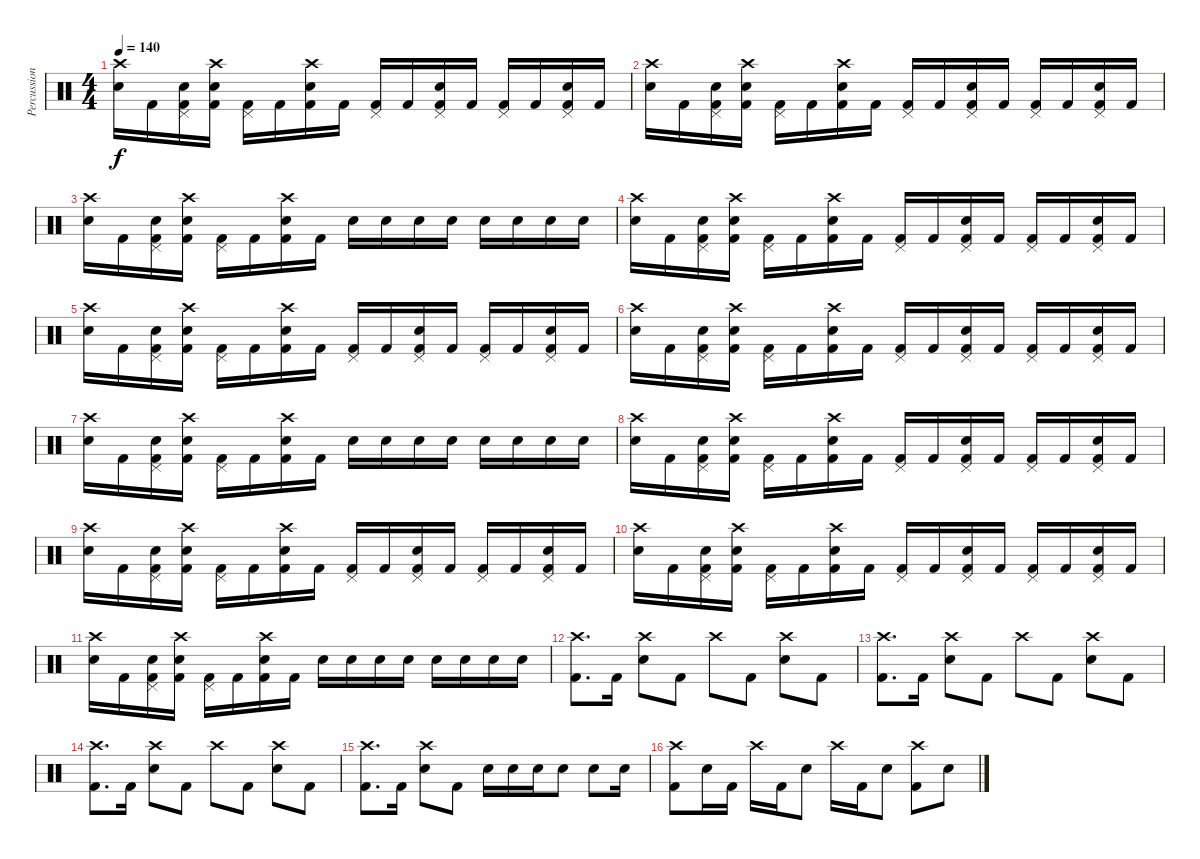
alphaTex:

\track ("Percussions" "Percussion") {instrument percussion}
\staff {score}
\articulation defaults
\ts (4 4)
\tempo 140
\clef neutral
\ks c
("Crash high (hit)" "Electric Snare (hit)").16{dy f} "Kick (hit) 2".16 ("Pedal Hi-Hat (hit)" "Electric Snare (hit)" "Kick (hit) 2").16 ("Crash high (hit)" "Electric Snare (hit)" "Kick (hit) 2").16 ("Pedal Hi-Hat (hit)" "Kick (hit) 2").16 "Kick (hit) 2".16 ("Crash high (hit)" "Electric Snare (hit)" "Kick (hit) 2").16 "Kick (hit) 2".16 ("Pedal Hi-Hat (hit)" "Kick (hit) 2").16 "Kick (hit) 2".16 ("Pedal Hi-Hat (hit)" "Electric Snare (hit)" "Kick (hit) 2").16 "Kick (hit) 2".16 ("Pedal Hi-Hat (hit)" "Kick (hit) 2").16 "Kick (hit) 2".16 ("Pedal Hi-Hat (hit)" "Electric Snare (hit)" "Kick (hit) 2").16 "Kick (hit) 2".16 |
("Crash high (hit)" "Electric Snare (hit)").16 "Kick (hit) 2".16 ("Pedal Hi-Hat (hit)" "Electric Snare (hit)" "Kick (hit) 2").16 ("Crash high (hit)" "Electric Snare (hit)" "Kick (hit) 2").16 ("Pedal Hi-Hat (hit)" "Kick (hit) 2").16 "Kick (hit) 2".16 ("Crash high (hit)" "Electric Snare (hit)" "Kick (hit) 2").16 "Kick (hit) 2".16 ("Pedal Hi-Hat (hit)" "Kick (hit) 2").16 "Kick (hit) 2".16 ("Pedal Hi-Hat (hit)" "Electric Snare (hit)" "Kick (hit) 2").16 "Kick (hit) 2".16 ("Pedal Hi-Hat (hit)" "Kick (hit) 2").16 "Kick (hit) 2".16 ("Pedal Hi-Hat (hit)" "Electric Snare (hit)" "Kick (hit) 2").16 "Kick (hit) 2".16 |
("Crash high (hit)" "Electric Snare (hit)").16 "Kick (hit) 2".16 ("Pedal Hi-Hat (hit)" "Electric Snare (hit)" "Kick (hit) 2").16 ("Crash high (hit)" "Electric Snare (hit)" "Kick (hit) 2").16 ("Pedal Hi-Hat (hit)" "Kick (hit) 2").16 "Kick (hit) 2".16 ("Crash high (hit)" "Electric Snare (hit)" "Kick (hit) 2").16 "Kick (hit) 2".16 "Electric Snare (hit)".16 "Electric Snare (hit)".16 "Electric Snare (hit)".16 "Electric Snare (hit)".16 "Electric Snare (hit)".16 "Electric Snare (hit)".16 "Electric Snare (hit)".16 "Electric Snare (hit)".16 |
("Crash high (hit)" "Electric Snare (hit)").16 "Kick (hit) 2".16 ("Pedal Hi-Hat (hit)" "Electric Snare (hit)" "Kick (hit) 2").16 ("Crash high (hit)" "Electric Snare (hit)" "Kick (hit) 2").16 ("Pedal Hi-Hat (hit)" "Kick (hit) 2").16 "Kick (hit) 2".16 ("Crash high (hit)" "Electric Snare (hit)" "Kick (hit) 2").16 "Kick (hit) 2".16 ("Pedal Hi-Hat (hit)" "Kick (hit) 2").16 "Kick (hit) 2".16 ("Pedal Hi-Hat (hit)" "Electric Snare (hit)" "Kick (hit) 2").16 "Kick (hit) 2".16 ("Pedal Hi-Hat (hit)" "Kick (hit) 2").16 "Kick (hit) 2".16 ("Pedal Hi-Hat (hit)" "Electric Snare (hit)" "Kick (hit) 2").16 "Kick (hit) 2".16 |
("Crash high (hit)" "Electric Snare (hit)").16 "Kick (hit) 2".16 ("Pedal Hi-Hat (hit)" "Electric Snare (hit)" "Kick (hit) 2").16 ("Crash high (hit)" "Electric Snare (hit)" "Kick (hit) 2").16 ("Pedal Hi-Hat (hit)" "Kick (hit) 2").16 "Kick (hit) 2".16 ("Crash high (hit)" "Electric Snare (hit)" "Kick (hit) 2").16 "Kick (hit) 2".16 ("Pedal Hi-Hat (hit)" "Kick (hit) 2").16 "Kick (hit) 2".16 ("Pedal Hi-Hat (hit)" "Electric Snare (hit)" "Kick (hit) 2").16 "Kick (hit) 2".16 ("Pedal Hi-Hat (hit)" "Kick (hit) 2").16 "Kick (hit) 2".16 ("Pedal Hi-Hat (hit)" "Electric Snare (hit)" "Kick (hit) 2").16 "Kick (hit) 2".16 |
("Crash high (hit)" "Electric Snare (hit)").16 "Kick (hit) 2".16 ("Pedal Hi-Hat (hit)" "Electric Snare (hit)" "Kick (hit) 2").16 ("Crash high (hit)" "Electric Snare (hit)" "Kick (hit) 2").16 ("Pedal Hi-Hat (hit)" "Kick (hit) 2").16 "Kick (hit) 2".16 ("Crash high (hit)" "Electric Snare (hit)" "Kick (hit) 2").16 "Kick (hit) 2".16 ("Pedal Hi-Hat (hit)" "Kick (hit) 2").16 "Kick (hit) 2".16 ("Pedal Hi-Hat (hit)" "Electric Snare (hit)" "Kick (hit) 2").16 "Kick (hit) 2".16 ("Pedal Hi-Hat (hit)" "Kick (hit) 2").16 "Kick (hit) 2".16 ("Pedal Hi-Hat (hit)" "Electric Snare (hit)" "Kick (hit) 2").16 "Kick (hit) 2".16 |
("Crash high (hit)" "Electric Snare (hit)").16 "Kick (hit) 2".16 ("Pedal Hi-Hat (hit)" "Electric Snare (hit)" "Kick (hit) 2").16 ("Crash high (hit)" "Electric Snare (hit)" "Kick (hit) 2").16 ("Pedal Hi-Hat (hit)" "Kick (hit) 2").16 "Kick (hit) 2".16 ("Crash high (hit)" "Electric Snare (hit)" "Kick (hit) 2").16 "Kick (hit) 2".16 "Electric Snare (hit)".16 "Electric Snare (hit)".16 "Electric Snare (hit)".16 "Electric Snare (hit)".16 "Electric Snare (hit)".16 "Electric Snare (hit)".16 "Electric Snare (hit)".16 "Electric Snare (hit)".16 |
("Crash high (hit)" "Electric Snare (hit)").16 "Kick (hit) 2".16 ("Pedal Hi-Hat (hit)" "Electric Snare (hit)" "Kick (hit) 2").16 ("Crash high (hit)" "Electric Snare (hit)" "Kick (hit) 2").16 ("Pedal Hi-Hat (hit)" "Kick (hit) 2").16 "Kick (hit) 2".16 ("Crash high (hit)" "Electric Snare (hit)" "Kick (hit) 2").16 "Kick (hit) 2".16 ("Pedal Hi-Hat (hit)" "Kick (hit) 2").16 "Kick (hit) 2".16 ("Pedal Hi-Hat (hit)" "Electric Snare (hit)" "Kick (hit) 2").16 "Kick (hit) 2".16 ("Pedal Hi-Hat (hit)" "Kick (hit) 2").16 "Kick (hit) 2".16 ("Pedal Hi-Hat (hit)" "Electric Snare (hit)" "Kick (hit) 2").16 "Kick (hit) 2".16 |
("Crash high (hit)" "Electric Snare (hit)").16 "Kick (hit) 2".16 ("Pedal Hi-Hat (hit)" "Electric Snare (hit)" "Kick (hit) 2").16 ("Crash high (hit)" "Electric Snare (hit)" "Kick (hit) 2").16 ("Pedal Hi-Hat (hit)" "Kick (hit) 2").16 "Kick (hit) 2".16 ("Crash high (hit)" "Electric Snare (hit)" "Kick (hit) 2").16 "Kick (hit) 2".16 ("Pedal Hi-Hat (hit)" "Kick (hit) 2").16 "Kick (hit) 2".16 ("Pedal Hi-Hat (hit)" "Electric Snare (hit)" "Kick (hit) 2").16 "Kick (hit) 2".16 ("Pedal Hi-Hat (hit)" "Kick (hit) 2").16 "Kick (hit) 2".16 ("Pedal Hi-Hat (hit)" "Electric Snare (hit)" "Kick (hit) 2").16 "Kick (hit) 2".16 |
("Crash high (hit)" "Electric Snare (hit)").16 "Kick (hit) 2".16 ("Pedal Hi-Hat (hit)" "Electric Snare (hit)" "Kick (hit) 2").16 ("Crash high (hit)" "Electric Snare (hit)" "Kick (hit) 2").16 ("Pedal Hi-Hat (hit)" "Kick (hit) 2").16 "Kick (hit) 2".16 ("Crash high (hit)" "Electric Snare (hit)" "Kick (hit) 2").16 "Kick (hit) 2".16 ("Pedal Hi-Hat (hit)" "Kick (hit) 2").16 "Kick (hit) 2".16 ("Pedal Hi-Hat (hit)" "Electric Snare (hit)" "Kick (hit) 2").16 "Kick (hit) 2".16 ("Pedal Hi-Hat (hit)" "Kick (hit) 2").16 "Kick (hit) 2".16 ("Pedal Hi-Hat (hit)" "Electric Snare (hit)" "Kick (hit) 2").16 "Kick (hit) 2".16 |
("Crash high (hit)" "Electric Snare (hit)").16 "Kick (hit) 2".16 ("Pedal Hi-Hat (hit)" "Electric Snare (hit)" "Kick (hit) 2").16 ("Crash high (hit)" "Electric Snare (hit)" "Kick (hit) 2").16 ("Pedal Hi-Hat (hit)" "Kick (hit) 2").16 "Kick (hit) 2".16 ("Crash high (hit)" "Electric Snare (hit)" "Kick (hit) 2").16 "Kick (hit) 2".16 "Electric Snare (hit)".16 "Electric Snare (hit)".16 "Electric Snare (hit)".16 "Electric Snare (hit)".16 "Electric Snare (hit)".16 "Electric Snare (hit)".16 "Electric Snare (hit)".16 "Electric Snare (hit)".16 |
("Crash high (hit)" "Kick (hit) 2").8{d} "Kick (hit) 2".16 ("Crash high (hit)" "Electric Snare (hit)").8 "Kick (hit) 2".8 "Crash high (hit)".8 "Kick (hit) 2".8 ("Crash high (hit)" "Electric Snare (hit)").8 "Kick (hit) 2".8 |
("Crash high (hit)" "Kick (hit) 2").8{d} "Kick (hit) 2".16 ("Crash high (hit)" "Electric Snare (hit)").8 "Kick (hit) 2".8 "Crash high (hit)".8 "Kick (hit) 2".8 ("Crash high (hit)" "Electric Snare (hit)").8 "Kick (hit) 2".8 |
("Crash high (hit)" "Kick (hit) 2").8{d} "Kick (hit) 2".16 ("Crash high (hit)" "Electric Snare (hit)").8 "Kick (hit) 2".8 "Crash high (hit)".8 "Kick (hit) 2".8 ("Crash high (hit)" "Electric Snare (hit)").8 "Kick (hit) 2".8 |
("Crash high (hit)" "Kick (hit) 2").8{d} "Kick (hit) 2".16 ("Crash high (hit)" "Electric Snare (hit)").8 "Kick (hit) 2".8 "Electric Snare (hit)".16 "Electric Snare (hit)".16 "Electric Snare (hit)".16 "Electric Snare (hit)".8 "Electric Snare (hit)".8 "Electric Snare (hit)".16 |
("Kick (hit) 2" "Crash high (hit)").8 "Electric Snare (hit)".16 "Kick (hit) 2".16 "Crash high (hit)".16 "Kick (hit) 2".16 "Electric Snare (hit)".8 "Crash high (hit)".16 "Kick (hit) 2".16 "Electric Snare (hit)".8 ("Crash high (hit)" "Kick (hit) 2").8 "Electric Snare (hit)".8
